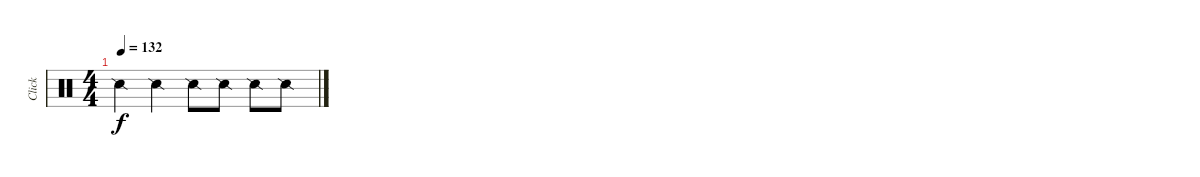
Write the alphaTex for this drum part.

\track ("Click" "Click") {instrument percussion}
\staff {score}
\articulation defaults
\ts (4 4)
\tempo 132
\clef neutral
\ks c "Snare (side stick) 2".4{dy f} "Snare (side stick) 2".4 "Snare (side stick) 2".8 "Snare (side stick) 2".8 "Snare (side stick) 2".8 "Snare (side stick) 2".8
